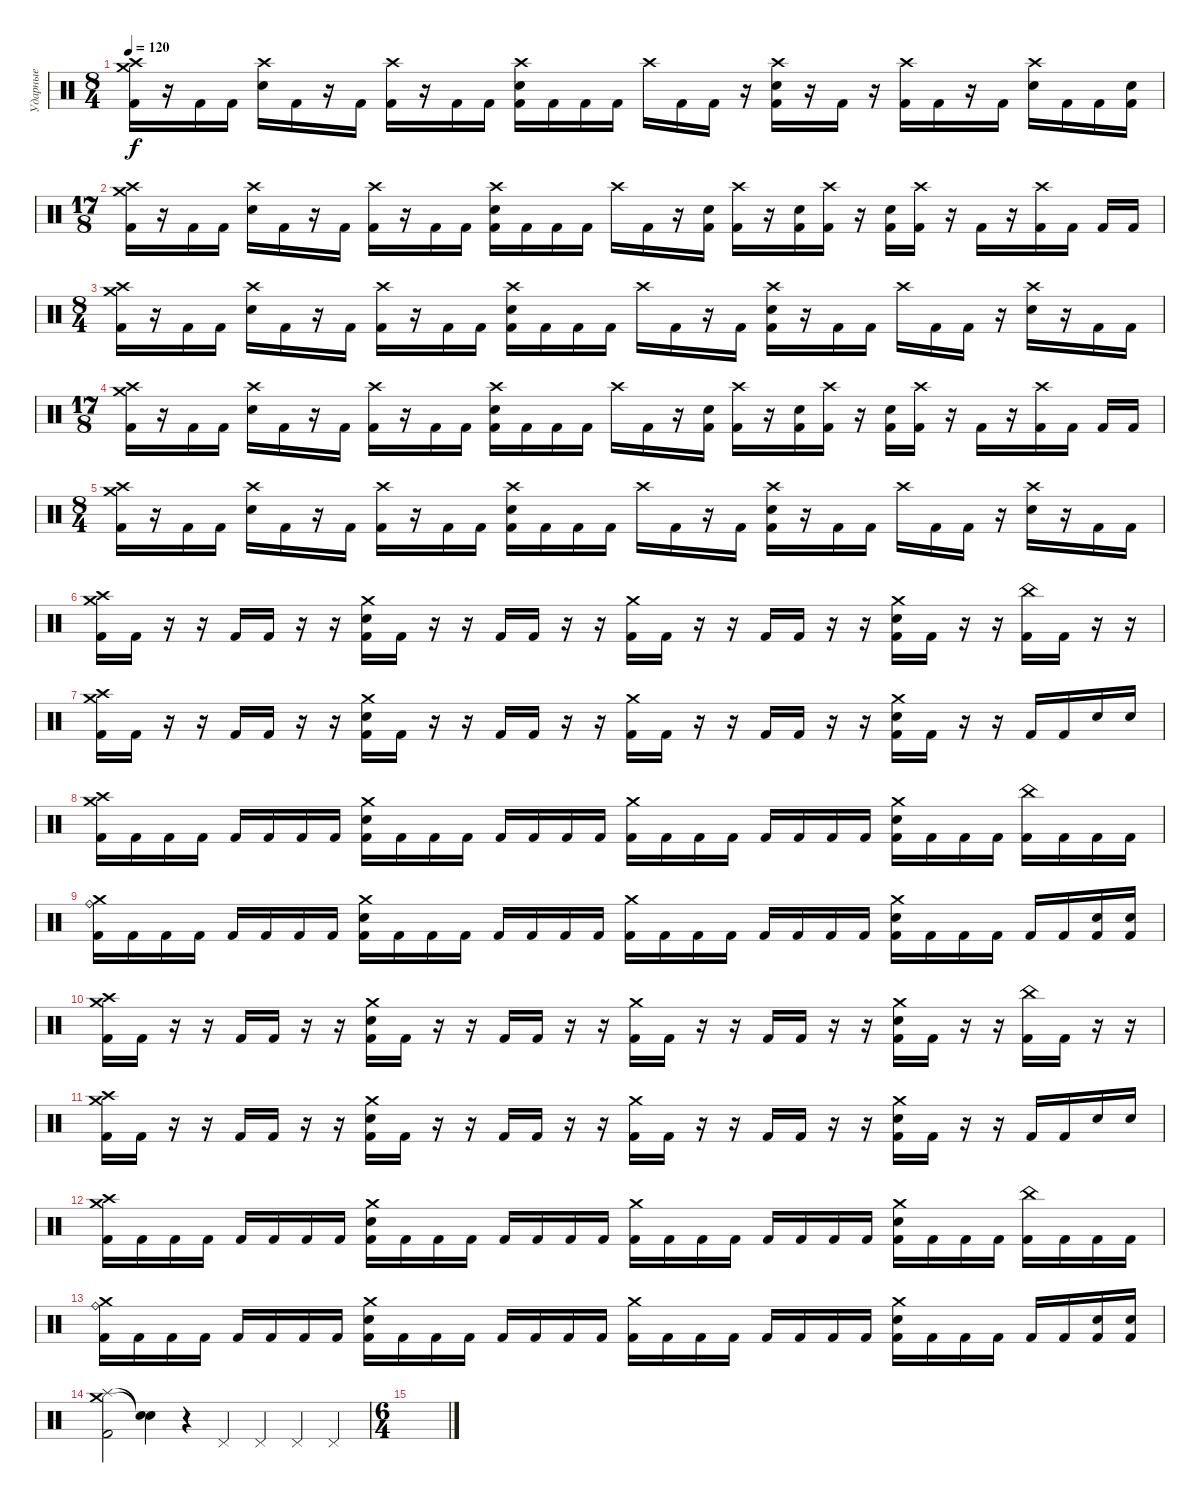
\track ("Ударные" "Ударные") {instrument percussion}
\staff {score}
\articulation defaults
\ts (8 4)
\tempo 120
\clef neutral
\ks c
("Crash high (hit)" "Crash medium (hit)" "Kick (hit) 2").16{dy f} r.16 "Kick (hit) 2".16 "Kick (hit) 2".16 ("Crash high (hit)" "Electric Snare (hit)").16 "Kick (hit) 2".16 r.16 "Kick (hit) 2".16 ("Crash high (hit)" "Kick (hit) 2").16 r.16 "Kick (hit) 2".16 "Kick (hit) 2".16 ("Crash high (hit)" "Electric Snare (hit)" "Kick (hit) 2").16 "Kick (hit) 2".16 "Kick (hit) 2".16 "Kick (hit) 2".16 "Crash high (hit)".16 "Kick (hit) 2".16 "Kick (hit) 2".16 r.16 ("Crash high (hit)" "Electric Snare (hit)" "Kick (hit) 2").16 r.16 "Kick (hit) 2".16 r.16 ("Crash high (hit)" "Kick (hit) 2").16 "Kick (hit) 2".16 r.16 "Kick (hit) 2".16 ("Crash high (hit)" "Electric Snare (hit)").16 "Kick (hit) 2".16 "Kick (hit) 2".16 ("Electric Snare (hit)" "Kick (hit) 2").16 |
\ts (17 8)
("Crash high (hit)" "Crash medium (hit)" "Kick (hit) 2").16 r.16 "Kick (hit) 2".16 "Kick (hit) 2".16 ("Crash high (hit)" "Electric Snare (hit)").16 "Kick (hit) 2".16 r.16 "Kick (hit) 2".16 ("Crash high (hit)" "Kick (hit) 2").16 r.16 "Kick (hit) 2".16 "Kick (hit) 2".16 ("Crash high (hit)" "Electric Snare (hit)" "Kick (hit) 2").16 "Kick (hit) 2".16 "Kick (hit) 2".16 "Kick (hit) 2".16 "Crash high (hit)".16 "Kick (hit) 2".16 r.16 ("Electric Snare (hit)" "Kick (hit) 2").16 ("Crash high (hit)" "Kick (hit) 2").16 r.16 ("Electric Snare (hit)" "Kick (hit) 2").16 ("Crash high (hit)" "Kick (hit) 2").16 r.16 ("Electric Snare (hit)" "Kick (hit) 2").16 ("Crash high (hit)" "Kick (hit) 2").16 r.16 "Kick (hit) 2".16 r.16 ("Crash high (hit)" "Kick (hit) 2").16 "Kick (hit) 2".16 "Kick (hit) 2".16 "Kick (hit) 2".16 |
\ts (8 4)
("Crash high (hit)" "Crash medium (hit)" "Kick (hit) 2").16 r.16 "Kick (hit) 2".16 "Kick (hit) 2".16 ("Crash high (hit)" "Electric Snare (hit)").16 "Kick (hit) 2".16 r.16 "Kick (hit) 2".16 ("Crash high (hit)" "Kick (hit) 2").16 r.16 "Kick (hit) 2".16 "Kick (hit) 2".16 ("Crash high (hit)" "Electric Snare (hit)" "Kick (hit) 2").16 "Kick (hit) 2".16 "Kick (hit) 2".16 "Kick (hit) 2".16 "Crash high (hit)".16 "Kick (hit) 2".16 r.16 "Kick (hit) 2".16 ("Crash high (hit)" "Electric Snare (hit)" "Kick (hit) 2").16 r.16 "Kick (hit) 2".16 "Kick (hit) 2".16 "Crash high (hit)".16 "Kick (hit) 2".16 "Kick (hit) 2".16 r.16 ("Crash high (hit)" "Electric Snare (hit)").16 r.16 "Kick (hit) 2".16 "Kick (hit) 2".16 |
\ts (17 8)
("Crash high (hit)" "Crash medium (hit)" "Kick (hit) 2").16 r.16 "Kick (hit) 2".16 "Kick (hit) 2".16 ("Crash high (hit)" "Electric Snare (hit)").16 "Kick (hit) 2".16 r.16 "Kick (hit) 2".16 ("Crash high (hit)" "Kick (hit) 2").16 r.16 "Kick (hit) 2".16 "Kick (hit) 2".16 ("Crash high (hit)" "Electric Snare (hit)" "Kick (hit) 2").16 "Kick (hit) 2".16 "Kick (hit) 2".16 "Kick (hit) 2".16 "Crash high (hit)".16 "Kick (hit) 2".16 r.16 ("Electric Snare (hit)" "Kick (hit) 2").16 ("Crash high (hit)" "Kick (hit) 2").16 r.16 ("Electric Snare (hit)" "Kick (hit) 2").16 ("Crash high (hit)" "Kick (hit) 2").16 r.16 ("Electric Snare (hit)" "Kick (hit) 2").16 ("Crash high (hit)" "Kick (hit) 2").16 r.16 "Kick (hit) 2".16 r.16 ("Crash high (hit)" "Kick (hit) 2").16 "Kick (hit) 2".16 "Kick (hit) 2".16 "Kick (hit) 2".16 |
\ts (8 4)
("Crash high (hit)" "Crash medium (hit)" "Kick (hit) 2").16 r.16 "Kick (hit) 2".16 "Kick (hit) 2".16 ("Crash high (hit)" "Electric Snare (hit)").16 "Kick (hit) 2".16 r.16 "Kick (hit) 2".16 ("Crash high (hit)" "Kick (hit) 2").16 r.16 "Kick (hit) 2".16 "Kick (hit) 2".16 ("Crash high (hit)" "Electric Snare (hit)" "Kick (hit) 2").16 "Kick (hit) 2".16 "Kick (hit) 2".16 "Kick (hit) 2".16 "Crash high (hit)".16 "Kick (hit) 2".16 r.16 "Kick (hit) 2".16 ("Crash high (hit)" "Electric Snare (hit)" "Kick (hit) 2").16 r.16 "Kick (hit) 2".16 "Kick (hit) 2".16 "Crash high (hit)".16 "Kick (hit) 2".16 "Kick (hit) 2".16 r.16 ("Crash high (hit)" "Electric Snare (hit)").16 r.16 "Kick (hit) 2".16 "Kick (hit) 2".16 |
("Crash medium (hit)" "Crash high (hit)" "Kick (hit) 2").16 "Kick (hit) 2".16 r.16 r.16 "Kick (hit) 2".16 "Kick (hit) 2".16 r.16 r.16 ("Crash medium (hit)" "Electric Snare (hit)" "Kick (hit) 2").16 "Kick (hit) 2".16 r.16 r.16 "Kick (hit) 2".16 "Kick (hit) 2".16 r.16 r.16 ("Crash medium (hit)" "Kick (hit) 2").16 "Kick (hit) 2".16 r.16 r.16 "Kick (hit) 2".16 "Kick (hit) 2".16 r.16 r.16 ("Crash medium (hit)" "Electric Snare (hit)" "Kick (hit) 2").16 "Kick (hit) 2".16 r.16 r.16 ("China (hit)" "Kick (hit) 2").16 "Kick (hit) 2".16 r.16 r.16 |
("Crash medium (hit)" "Crash high (hit)" "Kick (hit) 2").16 "Kick (hit) 2".16 r.16 r.16 "Kick (hit) 2".16 "Kick (hit) 2".16 r.16 r.16 ("Crash medium (hit)" "Electric Snare (hit)" "Kick (hit) 2").16 "Kick (hit) 2".16 r.16 r.16 "Kick (hit) 2".16 "Kick (hit) 2".16 r.16 r.16 ("Crash medium (hit)" "Kick (hit) 2").16 "Kick (hit) 2".16 r.16 r.16 "Kick (hit) 2".16 "Kick (hit) 2".16 r.16 r.16 ("Crash medium (hit)" "Electric Snare (hit)" "Kick (hit) 2").16 "Kick (hit) 2".16 r.16 r.16 "Kick (hit) 2".16 "Kick (hit) 2".16 "Electric Snare (hit)".16 "Electric Snare (hit)".16 |
("Crash medium (hit)" "Crash high (hit)" "Kick (hit) 2").16 "Kick (hit) 2".16 "Kick (hit) 2".16 "Kick (hit) 2".16 "Kick (hit) 2".16 "Kick (hit) 2".16 "Kick (hit) 2".16 "Kick (hit) 2".16 ("Crash medium (hit)" "Electric Snare (hit)" "Kick (hit) 2").16 "Kick (hit) 2".16 "Kick (hit) 2".16 "Kick (hit) 2".16 "Kick (hit) 2".16 "Kick (hit) 2".16 "Kick (hit) 2".16 "Kick (hit) 2".16 ("Crash medium (hit)" "Kick (hit) 2").16 "Kick (hit) 2".16 "Kick (hit) 2".16 "Kick (hit) 2".16 "Kick (hit) 2".16 "Kick (hit) 2".16 "Kick (hit) 2".16 "Kick (hit) 2".16 ("Crash medium (hit)" "Electric Snare (hit)" "Kick (hit) 2").16 "Kick (hit) 2".16 "Kick (hit) 2".16 "Kick (hit) 2".16 ("China (hit)" "Kick (hit) 2").16 "Kick (hit) 2".16 "Kick (hit) 2".16 "Kick (hit) 2".16 |
("Crash medium (hit)" "Ride (bell)" "Kick (hit) 2").16 "Kick (hit) 2".16 "Kick (hit) 2".16 "Kick (hit) 2".16 "Kick (hit) 2".16 "Kick (hit) 2".16 "Kick (hit) 2".16 "Kick (hit) 2".16 ("Crash medium (hit)" "Electric Snare (hit)" "Kick (hit) 2").16 "Kick (hit) 2".16 "Kick (hit) 2".16 "Kick (hit) 2".16 "Kick (hit) 2".16 "Kick (hit) 2".16 "Kick (hit) 2".16 "Kick (hit) 2".16 ("Crash medium (hit)" "Kick (hit) 2").16 "Kick (hit) 2".16 "Kick (hit) 2".16 "Kick (hit) 2".16 "Kick (hit) 2".16 "Kick (hit) 2".16 "Kick (hit) 2".16 "Kick (hit) 2".16 ("Crash medium (hit)" "Electric Snare (hit)" "Kick (hit) 2").16 "Kick (hit) 2".16 "Kick (hit) 2".16 "Kick (hit) 2".16 "Kick (hit) 2".16 "Kick (hit) 2".16 ("Electric Snare (hit)" "Kick (hit) 2").16 ("Electric Snare (hit)" "Kick (hit) 2").16 |
("Crash medium (hit)" "Crash high (hit)" "Kick (hit) 2").16 "Kick (hit) 2".16 r.16 r.16 "Kick (hit) 2".16 "Kick (hit) 2".16 r.16 r.16 ("Crash medium (hit)" "Electric Snare (hit)" "Kick (hit) 2").16 "Kick (hit) 2".16 r.16 r.16 "Kick (hit) 2".16 "Kick (hit) 2".16 r.16 r.16 ("Crash medium (hit)" "Kick (hit) 2").16 "Kick (hit) 2".16 r.16 r.16 "Kick (hit) 2".16 "Kick (hit) 2".16 r.16 r.16 ("Crash medium (hit)" "Electric Snare (hit)" "Kick (hit) 2").16 "Kick (hit) 2".16 r.16 r.16 ("China (hit)" "Kick (hit) 2").16 "Kick (hit) 2".16 r.16 r.16 |
("Crash medium (hit)" "Crash high (hit)" "Kick (hit) 2").16 "Kick (hit) 2".16 r.16 r.16 "Kick (hit) 2".16 "Kick (hit) 2".16 r.16 r.16 ("Crash medium (hit)" "Electric Snare (hit)" "Kick (hit) 2").16 "Kick (hit) 2".16 r.16 r.16 "Kick (hit) 2".16 "Kick (hit) 2".16 r.16 r.16 ("Crash medium (hit)" "Kick (hit) 2").16 "Kick (hit) 2".16 r.16 r.16 "Kick (hit) 2".16 "Kick (hit) 2".16 r.16 r.16 ("Crash medium (hit)" "Electric Snare (hit)" "Kick (hit) 2").16 "Kick (hit) 2".16 r.16 r.16 "Kick (hit) 2".16 "Kick (hit) 2".16 "Electric Snare (hit)".16 "Electric Snare (hit)".16 |
("Crash medium (hit)" "Crash high (hit)" "Kick (hit) 2").16 "Kick (hit) 2".16 "Kick (hit) 2".16 "Kick (hit) 2".16 "Kick (hit) 2".16 "Kick (hit) 2".16 "Kick (hit) 2".16 "Kick (hit) 2".16 ("Crash medium (hit)" "Electric Snare (hit)" "Kick (hit) 2").16 "Kick (hit) 2".16 "Kick (hit) 2".16 "Kick (hit) 2".16 "Kick (hit) 2".16 "Kick (hit) 2".16 "Kick (hit) 2".16 "Kick (hit) 2".16 ("Crash medium (hit)" "Kick (hit) 2").16 "Kick (hit) 2".16 "Kick (hit) 2".16 "Kick (hit) 2".16 "Kick (hit) 2".16 "Kick (hit) 2".16 "Kick (hit) 2".16 "Kick (hit) 2".16 ("Crash medium (hit)" "Electric Snare (hit)" "Kick (hit) 2").16 "Kick (hit) 2".16 "Kick (hit) 2".16 "Kick (hit) 2".16 ("China (hit)" "Kick (hit) 2").16 "Kick (hit) 2".16 "Kick (hit) 2".16 "Kick (hit) 2".16 |
("Crash medium (hit)" "Ride (bell)" "Kick (hit) 2").16 "Kick (hit) 2".16 "Kick (hit) 2".16 "Kick (hit) 2".16 "Kick (hit) 2".16 "Kick (hit) 2".16 "Kick (hit) 2".16 "Kick (hit) 2".16 ("Crash medium (hit)" "Electric Snare (hit)" "Kick (hit) 2").16 "Kick (hit) 2".16 "Kick (hit) 2".16 "Kick (hit) 2".16 "Kick (hit) 2".16 "Kick (hit) 2".16 "Kick (hit) 2".16 "Kick (hit) 2".16 ("Crash medium (hit)" "Kick (hit) 2").16 "Kick (hit) 2".16 "Kick (hit) 2".16 "Kick (hit) 2".16 "Kick (hit) 2".16 "Kick (hit) 2".16 "Kick (hit) 2".16 "Kick (hit) 2".16 ("Crash medium (hit)" "Electric Snare (hit)" "Kick (hit) 2").16 "Kick (hit) 2".16 "Kick (hit) 2".16 "Kick (hit) 2".16 "Kick (hit) 2".16 "Kick (hit) 2".16 ("Electric Snare (hit)" "Kick (hit) 2").16 ("Electric Snare (hit)" "Kick (hit) 2").16 |
("Crash medium (hit)" "Splash (hit)" "Kick (hit) 2").2 ("Snare (hit)"{t} "Snare (hit)"{t}).4 r.4 "Pedal Hi-Hat (hit)".4 "Pedal Hi-Hat (hit)".4 "Pedal Hi-Hat (hit)".4 "Pedal Hi-Hat (hit)".4 |
\ts (6 4)
